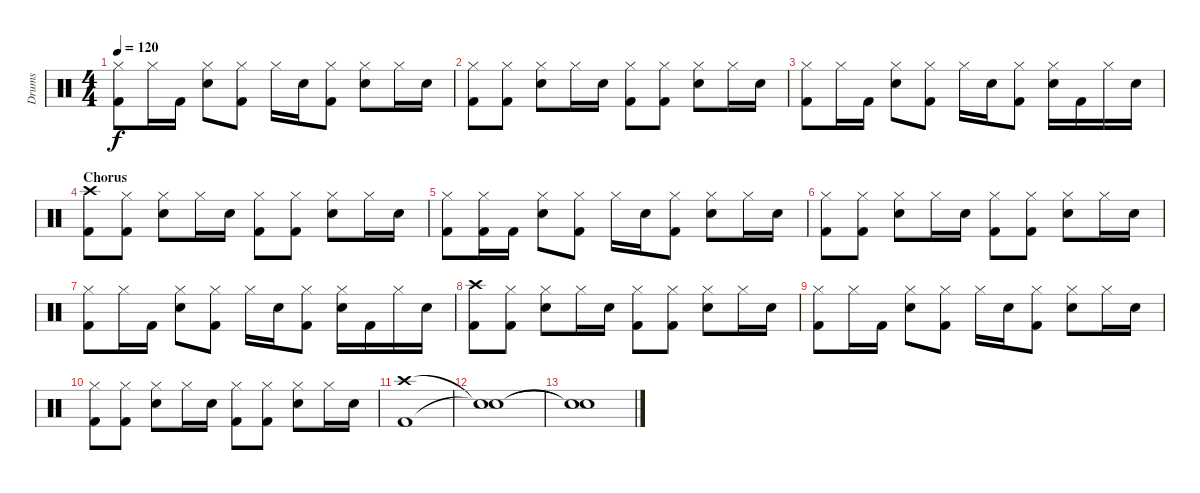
\track ("Drums" "Drums") {instrument percussion}
\staff {score}
\articulation defaults
\ts (4 4)
\tempo 120
\clef neutral
\ks c
("Hi-Hat (closed)" "Kick (hit) 2").8{dy f} "Hi-Hat (closed)".16 "Kick (hit) 2".16 ("Hi-Hat (closed)" "Snare (hit) 2").8 ("Hi-Hat (closed)" "Kick (hit) 2").8 "Hi-Hat (closed)".16 "Snare (hit) 2".16 ("Hi-Hat (closed)" "Kick (hit) 2").8 ("Hi-Hat (closed)" "Snare (hit) 2").8 "Hi-Hat (closed)".16 "Snare (hit) 2".16 |
("Hi-Hat (closed)" "Kick (hit) 2").8 ("Hi-Hat (closed)" "Kick (hit) 2").8 ("Hi-Hat (closed)" "Snare (hit) 2").8 "Hi-Hat (closed)".16 "Snare (hit) 2".16 ("Hi-Hat (closed)" "Kick (hit) 2").8 ("Hi-Hat (closed)" "Kick (hit) 2").8 ("Hi-Hat (closed)" "Snare (hit) 2").8 "Hi-Hat (closed)".16 "Snare (hit) 2".16 |
("Hi-Hat (closed)" "Kick (hit) 2").8 "Hi-Hat (closed)".16 "Kick (hit) 2".16 ("Hi-Hat (closed)" "Snare (hit) 2").8 ("Hi-Hat (closed)" "Kick (hit) 2").8 "Hi-Hat (closed)".16 "Snare (hit) 2".16 ("Hi-Hat (closed)" "Kick (hit) 2").8 ("Hi-Hat (closed)" "Snare (hit) 2").16 "Kick (hit) 2".16 "Hi-Hat (closed)".16 "Snare (hit) 2".16 |
\section ("" "Chorus")
("Crash high (hit)" "Kick (hit) 2").8 ("Hi-Hat (closed)" "Kick (hit) 2").8 ("Hi-Hat (closed)" "Snare (hit) 2").8 "Hi-Hat (closed)".16 "Snare (hit) 2".16 ("Hi-Hat (closed)" "Kick (hit) 2").8 ("Hi-Hat (closed)" "Kick (hit) 2").8 ("Hi-Hat (closed)" "Snare (hit) 2").8 "Hi-Hat (closed)".16 "Snare (hit) 2".16 |
("Hi-Hat (closed)" "Kick (hit) 2").8 ("Hi-Hat (closed)" "Kick (hit) 2").16 "Kick (hit) 2".16 ("Hi-Hat (closed)" "Snare (hit) 2").8 ("Hi-Hat (closed)" "Kick (hit) 2").8 "Hi-Hat (closed)".16 "Snare (hit) 2".16 ("Hi-Hat (closed)" "Kick (hit) 2").8 ("Hi-Hat (closed)" "Snare (hit) 2").8 "Hi-Hat (closed)".16 "Snare (hit) 2".16 |
("Hi-Hat (closed)" "Kick (hit) 2").8 ("Hi-Hat (closed)" "Kick (hit) 2").8 ("Hi-Hat (closed)" "Snare (hit) 2").8 "Hi-Hat (closed)".16 "Snare (hit) 2".16 ("Hi-Hat (closed)" "Kick (hit) 2").8 ("Hi-Hat (closed)" "Kick (hit) 2").8 ("Hi-Hat (closed)" "Snare (hit) 2").8 "Hi-Hat (closed)".16 "Snare (hit) 2".16 |
("Hi-Hat (closed)" "Kick (hit) 2").8 "Hi-Hat (closed)".16 "Kick (hit) 2".16 ("Hi-Hat (closed)" "Snare (hit) 2").8 ("Hi-Hat (closed)" "Kick (hit) 2").8 "Hi-Hat (closed)".16 "Snare (hit) 2".16 ("Hi-Hat (closed)" "Kick (hit) 2").8 ("Hi-Hat (closed)" "Snare (hit) 2").16 "Kick (hit) 2".16 "Hi-Hat (closed)".16 "Snare (hit) 2".16 |
("Crash high (hit)" "Kick (hit) 2").8 ("Hi-Hat (closed)" "Kick (hit) 2").8 ("Hi-Hat (closed)" "Snare (hit) 2").8 "Hi-Hat (closed)".16 "Snare (hit) 2".16 ("Hi-Hat (closed)" "Kick (hit) 2").8 ("Hi-Hat (closed)" "Kick (hit) 2").8 ("Hi-Hat (closed)" "Snare (hit) 2").8 "Hi-Hat (closed)".16 "Snare (hit) 2".16 |
("Hi-Hat (closed)" "Kick (hit) 2").8 "Hi-Hat (closed)".16 "Kick (hit) 2".16 ("Hi-Hat (closed)" "Snare (hit) 2").8 ("Hi-Hat (closed)" "Kick (hit) 2").8 "Hi-Hat (closed)".16 "Snare (hit) 2".16 ("Hi-Hat (closed)" "Kick (hit) 2").8 ("Hi-Hat (closed)" "Snare (hit) 2").8 "Hi-Hat (closed)".16 "Snare (hit) 2".16 |
("Hi-Hat (closed)" "Kick (hit) 2").8 ("Hi-Hat (closed)" "Kick (hit) 2").8 ("Hi-Hat (closed)" "Snare (hit) 2").8 "Hi-Hat (closed)".16 "Snare (hit) 2".16 ("Hi-Hat (closed)" "Kick (hit) 2").8 ("Hi-Hat (closed)" "Kick (hit) 2").8 ("Hi-Hat (closed)" "Snare (hit) 2").8 "Hi-Hat (closed)".16 "Snare (hit) 2".16 |
("Crash high (hit)" "Kick (hit) 2").1 |
("Snare (hit)"{t} "Snare (hit)"{t}).1 |
("Snare (hit)"{t} "Snare (hit)"{t}).1
